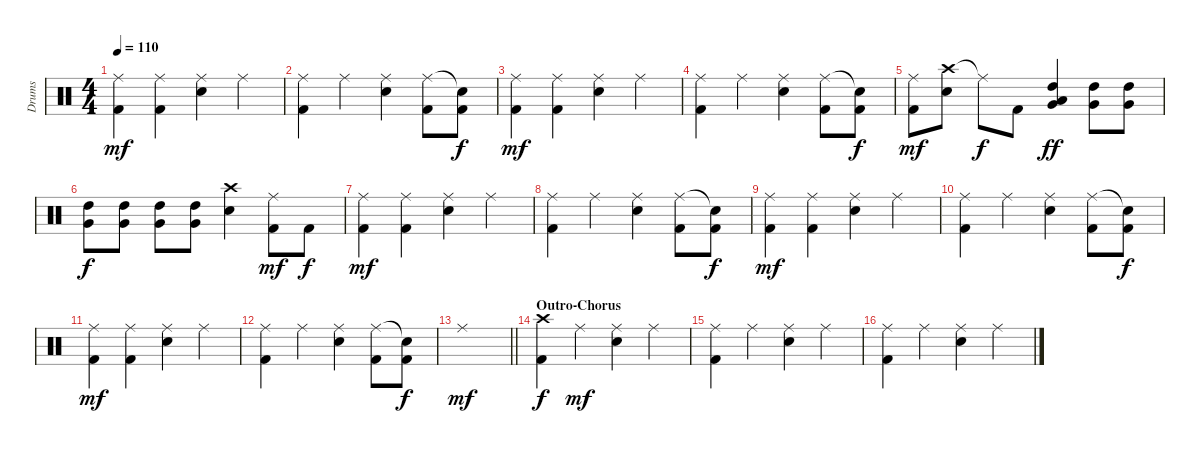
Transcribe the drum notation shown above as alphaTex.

\track ("Drums" "Drums") {instrument percussion}
\staff {score}
\articulation defaults
\ts (4 4)
\tempo 110
\clef neutral
\ks c
("Ride (middle)" "Kick (hit) 2").4{dy mf} ("Ride (middle)" "Kick (hit) 2").4 ("Ride (middle)" "Snare (hit) 2").4 "Ride (middle)".4 |
("Ride (middle)" "Kick (hit) 2").4 "Ride (middle)".4 ("Ride (middle)" "Snare (hit) 2").4 ("Ride (middle)" "Kick (hit) 2").8 ("Snare (hit)"{t} "Kick (hit) 2").8{dy f} |
("Ride (middle)" "Kick (hit) 2").4{dy mf} ("Ride (middle)" "Kick (hit) 2").4 ("Ride (middle)" "Snare (hit) 2").4 "Ride (middle)".4 |
("Ride (middle)" "Kick (hit) 2").4 "Ride (middle)".4 ("Ride (middle)" "Snare (hit) 2").4 ("Ride (middle)" "Kick (hit) 2").8 ("Snare (hit)"{t} "Kick (hit) 2").8{dy f} |
("Ride (middle)" "Kick (hit) 2").8{dy mf} ("Crash high (hit)" "Snare (hit) 2").8 "Ride (middle)"{t}.8{dy f} "Kick (hit) 2".8 ("Low Tom (hit)" "High Tom (hit)" "Very Low Tom (hit)").4{dy ff} ("High Tom (hit)" "Very Low Tom (hit)").8 ("High Tom (hit)" "Very Low Tom (hit)").8 |
("High Tom (hit)" "Very Low Tom (hit)").8{dy f} ("High Tom (hit)" "Very Low Tom (hit)").8 ("High Tom (hit)" "Very Low Tom (hit)").8 ("High Tom (hit)" "Very Low Tom (hit)").8 ("Crash high (hit)" "Snare (hit) 2").4 ("Ride (middle)" "Kick (hit) 2").8{dy mf} "Kick (hit) 2".8{dy f} |
("Ride (middle)" "Kick (hit) 2").4{dy mf} ("Ride (middle)" "Kick (hit) 2").4 ("Ride (middle)" "Snare (hit) 2").4 "Ride (middle)".4 |
("Ride (middle)" "Kick (hit) 2").4 "Ride (middle)".4 ("Ride (middle)" "Snare (hit) 2").4 ("Ride (middle)" "Kick (hit) 2").8 ("Snare (hit)"{t} "Kick (hit) 2").8{dy f} |
("Ride (middle)" "Kick (hit) 2").4{dy mf} ("Ride (middle)" "Kick (hit) 2").4 ("Ride (middle)" "Snare (hit) 2").4 "Ride (middle)".4 |
("Ride (middle)" "Kick (hit) 2").4 "Ride (middle)".4 ("Ride (middle)" "Snare (hit) 2").4 ("Ride (middle)" "Kick (hit) 2").8 ("Snare (hit)"{t} "Kick (hit) 2").8{dy f} |
("Ride (middle)" "Kick (hit) 2").4{dy mf} ("Ride (middle)" "Kick (hit) 2").4 ("Ride (middle)" "Snare (hit) 2").4 "Ride (middle)".4 |
("Ride (middle)" "Kick (hit) 2").4 "Ride (middle)".4 ("Ride (middle)" "Snare (hit) 2").4 ("Ride (middle)" "Kick (hit) 2").8 ("Snare (hit)"{t} "Kick (hit) 2").8{dy f} |
\barLineRight lightlight "Ride (middle)".1{dy mf}
|
\section ("" "Outro-Chorus")
("Crash high (hit)" "Kick (hit) 2").4{dy f} "Ride (middle)".4{dy mf} ("Ride (middle)" "Snare (hit) 2").4 "Ride (middle)".4 |
("Ride (middle)" "Kick (hit) 2").4 "Ride (middle)".4 ("Ride (middle)" "Snare (hit) 2").4 "Ride (middle)".4 |
("Ride (middle)" "Kick (hit) 2").4 "Ride (middle)".4 ("Ride (middle)" "Snare (hit) 2").4 "Ride (middle)".4
